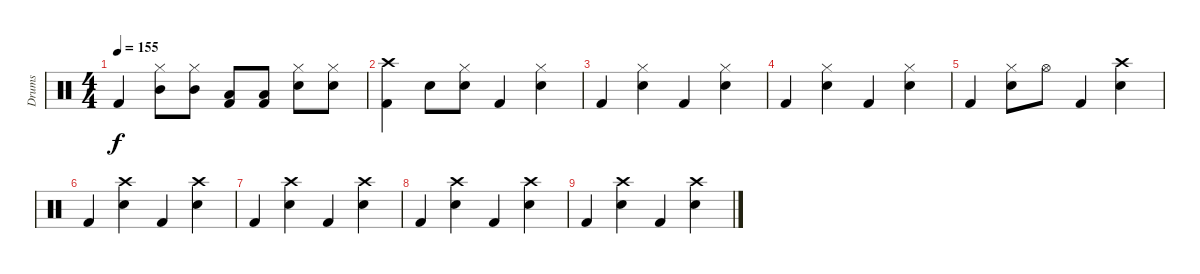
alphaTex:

\track ("Drums" "Drums") {instrument percussion}
\staff {score}
\articulation defaults
\ts (4 4)
\tempo 155
\clef neutral
\ks c "Kick (hit) 2".4{dy f}
("Mid Tom (hit)" "Hi-Hat (closed)").8 ("Mid Tom (hit)" "Hi-Hat (closed)").8 ("Kick (hit) 2" "Low Tom (hit)").8 ("Kick (hit) 2" "Low Tom (hit)").8 ("Electric Snare (hit)" "Hi-Hat (closed)").8 ("Electric Snare (hit)" "Hi-Hat (closed)").8 |
("Kick (hit) 2" "Crash high (hit)").4 "Electric Snare (hit)".8 ("Electric Snare (hit)" "Hi-Hat (closed)").8 "Kick (hit) 2".4 ("Electric Snare (hit)" "Hi-Hat (closed)").4 |
"Kick (hit) 2".4 ("Electric Snare (hit)" "Hi-Hat (closed)").4 "Kick (hit) 2".4 ("Electric Snare (hit)" "Hi-Hat (closed)").4 |
"Kick (hit) 2".4{volume 10} ("Electric Snare (hit)" "Hi-Hat (closed)").4 "Kick (hit) 2".4 ("Electric Snare (hit)" "Hi-Hat (closed)").4 |
"Kick (hit) 2".4{volume 8} ("Electric Snare (hit)" "Hi-Hat (closed)").8 "Hi-Hat (open)".8 "Kick (hit) 2".4 ("Electric Snare (hit)" "Crash high (hit)").4 |
"Kick (hit) 2".4{volume 6} ("Electric Snare (hit)" "Crash high (hit)").4 "Kick (hit) 2".4 ("Electric Snare (hit)" "Crash high (hit)").4 |
"Kick (hit) 2".4{volume 5} ("Electric Snare (hit)" "Crash high (hit)").4 "Kick (hit) 2".4 ("Electric Snare (hit)" "Crash high (hit)").4 |
"Kick (hit) 2".4{volume 3} ("Electric Snare (hit)" "Crash high (hit)").4 "Kick (hit) 2".4 ("Electric Snare (hit)" "Crash high (hit)").4 |
"Kick (hit) 2".4{volume 1} ("Electric Snare (hit)" "Crash high (hit)").4 "Kick (hit) 2".4 ("Electric Snare (hit)" "Crash high (hit)").4
